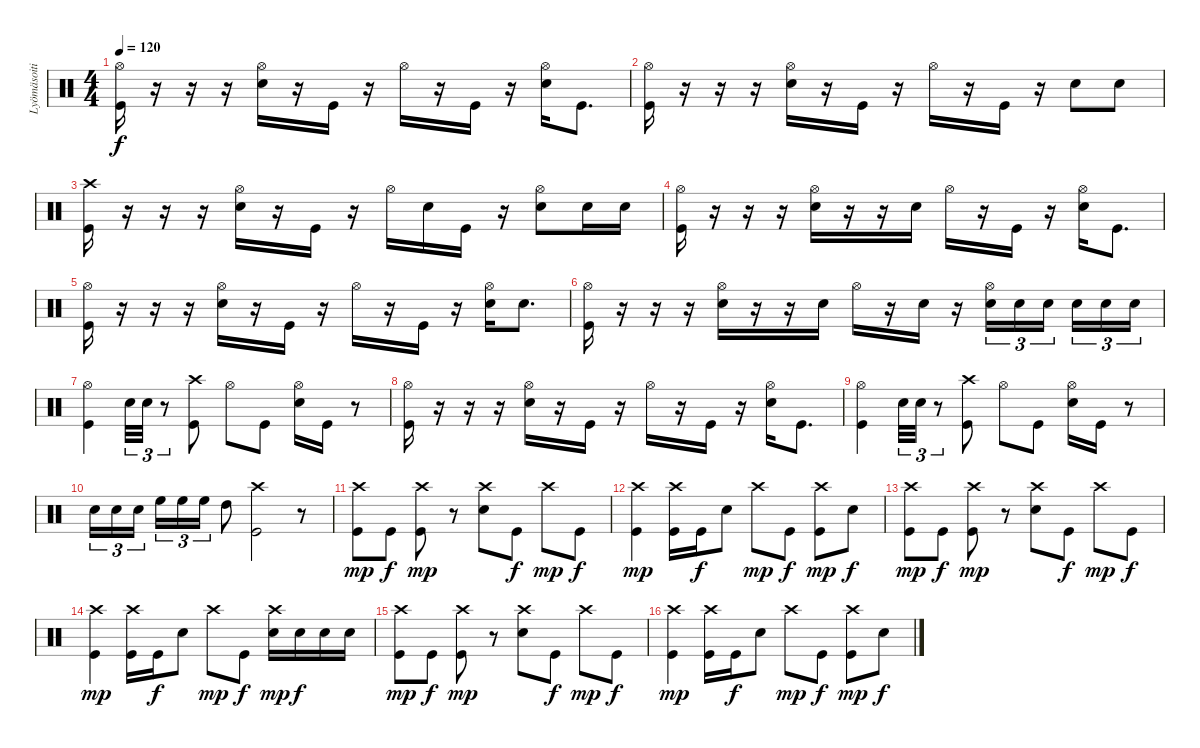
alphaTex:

\track ("Lyömäsoitin" "Lyömäsoiti") {instrument percussion}
\staff {score}
\articulation defaults
\ts (4 4)
\tempo 120
\clef neutral
\ks c
("Hi-Hat (open)" "Kick (hit)").16{dy f} r.16 r.16 r.16 ("Hi-Hat (open)" "Snare (hit) 2").16 r.16 "Kick (hit)".16 r.16 "Hi-Hat (open)".16 r.16 "Kick (hit)".16 r.16 ("Hi-Hat (open)" "Snare (hit) 2").16 "Kick (hit)".8{d} |
("Hi-Hat (open)" "Kick (hit)").16 r.16 r.16 r.16 ("Hi-Hat (open)" "Snare (hit) 2").16 r.16 "Kick (hit)".16 r.16 "Hi-Hat (open)".16 r.16 "Kick (hit)".16 r.16 "Snare (hit) 2".8 "Snare (hit) 2".8 |
("Crash high (hit)" "Kick (hit)").16 r.16 r.16 r.16 ("Hi-Hat (open)" "Snare (hit) 2").16 r.16 "Kick (hit)".16 r.16 "Hi-Hat (open)".16 "Snare (hit) 2".16 "Kick (hit)".16 r.16 ("Hi-Hat (open)" "Snare (hit) 2").8 "Snare (hit) 2".16 "Snare (hit) 2".16 |
("Hi-Hat (open)" "Kick (hit)").16 r.16 r.16 r.16 ("Hi-Hat (open)" "Snare (hit) 2").16 r.16 r.16 "Snare (hit) 2".16 "Hi-Hat (open)".16 r.16 "Kick (hit)".16 r.16 ("Hi-Hat (open)" "Snare (hit) 2").16 "Kick (hit)".8{d} |
("Hi-Hat (open)" "Kick (hit)").16 r.16 r.16 r.16 ("Hi-Hat (open)" "Snare (hit) 2").16 r.16 "Kick (hit)".16 r.16 "Hi-Hat (open)".16 r.16 "Kick (hit)".16 r.16 ("Hi-Hat (open)" "Snare (hit) 2").16 "Snare (hit) 2".8{d} |
("Hi-Hat (open)" "Kick (hit)").16 r.16 r.16 r.16 ("Hi-Hat (open)" "Snare (hit) 2").16 r.16 r.16 "Snare (hit) 2".16 "Hi-Hat (open)".16 r.16 "Snare (hit) 2".16 r.16 ("Hi-Hat (open)" "Snare (hit) 2").16{tu (3 2)} "Snare (hit) 2".16{tu (3 2)} "Snare (hit) 2".16{tu (3 2) beam splitsecondary} "Snare (hit) 2".16{tu (3 2)} "Snare (hit) 2".16{tu (3 2)} "Snare (hit) 2".16{tu (3 2)} |
("Hi-Hat (open)" "Kick (hit)").4 "Snare (hit) 2".32{tu (3 2)} "Snare (hit) 2".32{tu (3 2)} r.8{tu (3 2)} ("Crash high (hit)" "Kick (hit)").8 "Hi-Hat (open)".8 "Kick (hit)".8 ("Hi-Hat (open)" "Snare (hit) 2").16 "Kick (hit)".16 r.8 |
("Hi-Hat (open)" "Kick (hit)").16 r.16 r.16 r.16 ("Hi-Hat (open)" "Snare (hit) 2").16 r.16 "Kick (hit)".16 r.16 "Hi-Hat (open)".16 r.16 "Kick (hit)".16 r.16 ("Hi-Hat (open)" "Snare (hit) 2").16 "Kick (hit)".8{d} |
("Hi-Hat (open)" "Kick (hit)").4 "Snare (hit) 2".32{tu (3 2)} "Snare (hit) 2".32{tu (3 2)} r.8{tu (3 2)} ("Crash high (hit)" "Kick (hit)").8 "Hi-Hat (open)".8 "Kick (hit)".8 ("Hi-Hat (open)" "Snare (hit) 2").16 "Kick (hit)".16 r.8 |
"Snare (hit) 2".16{tu (3 2)} "Snare (hit) 2".16{tu (3 2)} "Snare (hit) 2".16{tu (3 2) beam splitsecondary} "High Floor Tom (hit)".16{tu (3 2)} "High Floor Tom (hit)".16{tu (3 2)} "High Floor Tom (hit)".16{tu (3 2)} "High Tom (hit)".8 ("Crash high (hit)" "Kick (hit)").2 r.8 |
("Crash high (hit)" "Kick (hit)").8{dy mp} "Kick (hit)".8{dy f} ("Crash high (hit)" "Kick (hit)").8{dy mp} r.8 ("Crash high (hit)" "Snare (hit) 2").8 "Kick (hit)".8{dy f} "Crash high (hit)".8{dy mp} "Kick (hit)".8{dy f} |
("Crash high (hit)" "Kick (hit)").4{dy mp} ("Crash high (hit)" "Kick (hit)").16 "Kick (hit)".16{dy f} "Snare (hit) 2".8 "Crash high (hit)".8{dy mp} "Kick (hit)".8{dy f} ("Crash high (hit)" "Kick (hit)").8{dy mp} "Snare (hit) 2".8{dy f} |
("Crash high (hit)" "Kick (hit)").8{dy mp} "Kick (hit)".8{dy f} ("Crash high (hit)" "Kick (hit)").8{dy mp} r.8 ("Crash high (hit)" "Snare (hit) 2").8 "Kick (hit)".8{dy f} "Crash high (hit)".8{dy mp} "Kick (hit)".8{dy f} |
("Crash high (hit)" "Kick (hit)").4{dy mp} ("Crash high (hit)" "Kick (hit)").16 "Kick (hit)".16{dy f} "Snare (hit) 2".8 "Crash high (hit)".8{dy mp} "Kick (hit)".8{dy f} ("Crash high (hit)" "Snare (hit) 2").16{dy mp} "Snare (hit) 2".16{dy f} "Snare (hit) 2".16 "Snare (hit) 2".16 |
("Crash high (hit)" "Kick (hit)").8{dy mp} "Kick (hit)".8{dy f} ("Crash high (hit)" "Kick (hit)").8{dy mp} r.8 ("Crash high (hit)" "Snare (hit) 2").8 "Kick (hit)".8{dy f} "Crash high (hit)".8{dy mp} "Kick (hit)".8{dy f} |
("Crash high (hit)" "Kick (hit)").4{dy mp} ("Crash high (hit)" "Kick (hit)").16 "Kick (hit)".16{dy f} "Snare (hit) 2".8 "Crash high (hit)".8{dy mp} "Kick (hit)".8{dy f} ("Crash high (hit)" "Kick (hit)").8{dy mp} "Snare (hit) 2".8{dy f}
